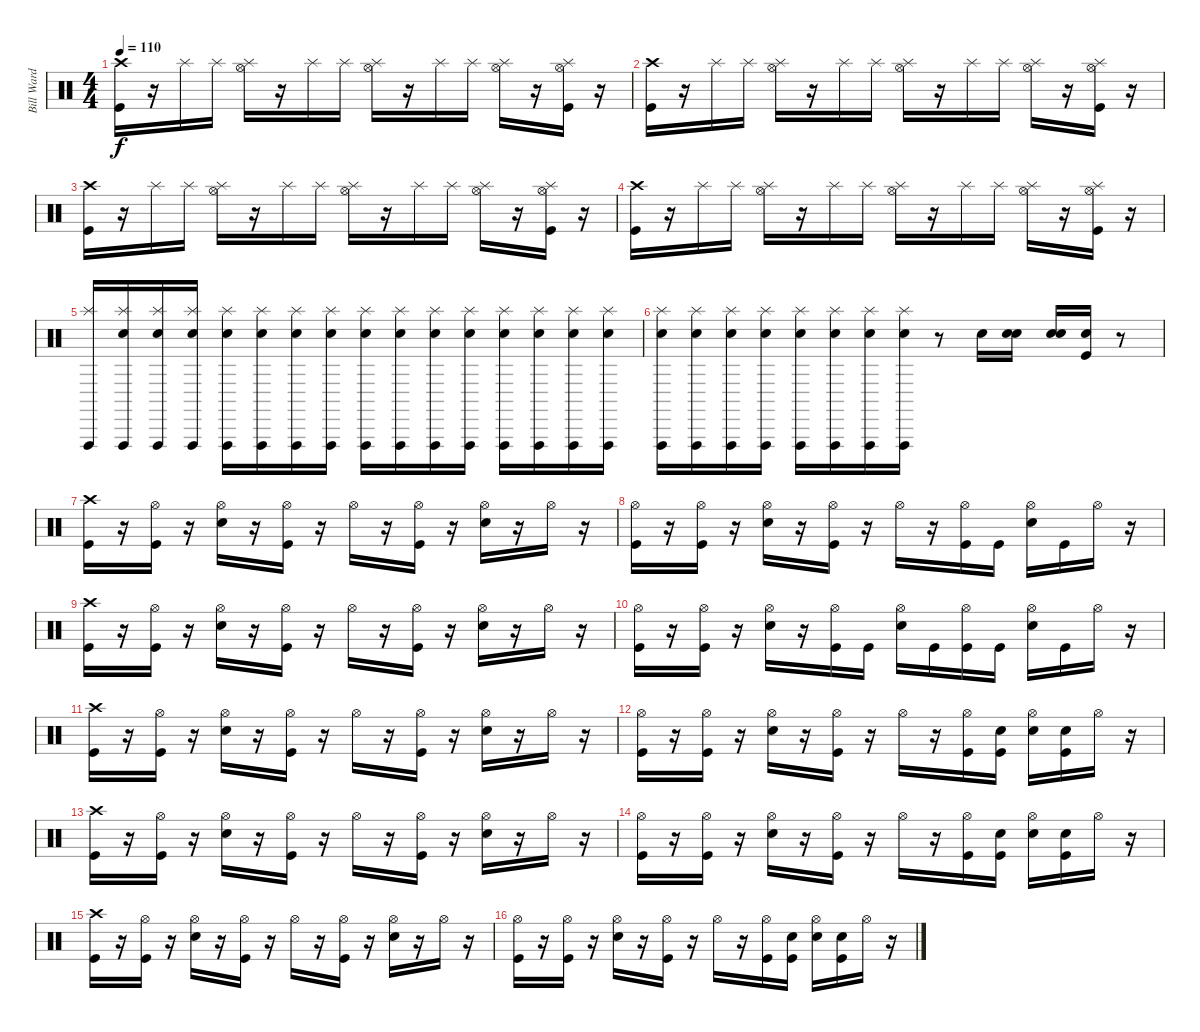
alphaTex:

\track ("Bill Ward" "Bill Ward") {instrument percussion}
\staff {score}
\articulation defaults
\ts (4 4)
\tempo 110
\clef neutral
\ks c
("Crash high (hit)" "Kick (hit)").16{dy f} r.16 "Splash (hit)".16 "Splash (hit)".16 ("Hi-Hat (open)" "Splash (hit)").16 r.16 "Splash (hit)".16 "Splash (hit)".16 ("Hi-Hat (open)" "Splash (hit)").16 r.16 "Splash (hit)".16 "Splash (hit)".16 ("Hi-Hat (open)" "Splash (hit)").16 r.16 ("Kick (hit)" "Hi-Hat (open)" "Splash (hit)").16 r.16 |
("Crash high (hit)" "Kick (hit)").16 r.16 "Splash (hit)".16 "Splash (hit)".16 ("Hi-Hat (open)" "Splash (hit)").16 r.16 "Splash (hit)".16 "Splash (hit)".16 ("Hi-Hat (open)" "Splash (hit)").16 r.16 "Splash (hit)".16 "Splash (hit)".16 ("Hi-Hat (open)" "Splash (hit)").16 r.16 ("Kick (hit)" "Hi-Hat (open)" "Splash (hit)").16 r.16 |
("Crash high (hit)" "Kick (hit)").16 r.16 "Splash (hit)".16 "Splash (hit)".16 ("Hi-Hat (open)" "Splash (hit)").16 r.16 "Splash (hit)".16 "Splash (hit)".16 ("Hi-Hat (open)" "Splash (hit)").16 r.16 "Splash (hit)".16 "Splash (hit)".16 ("Hi-Hat (open)" "Splash (hit)").16 r.16 ("Kick (hit)" "Hi-Hat (open)" "Splash (hit)").16 r.16 |
("Crash high (hit)" "Kick (hit)").16 r.16 "Splash (hit)".16 "Splash (hit)".16 ("Hi-Hat (open)" "Splash (hit)").16 r.16 "Splash (hit)".16 "Splash (hit)".16 ("Hi-Hat (open)" "Splash (hit)").16 r.16 "Splash (hit)".16 "Splash (hit)".16 ("Hi-Hat (open)" "Splash (hit)").16 r.16 ("Kick (hit)" "Hi-Hat (open)" "Splash (hit)").16 r.16 |
("Vibraslap (hit)" "Splash (hit)").16 ("Snare (hit)" "Vibraslap (hit)" "Splash (hit)").16 ("Snare (hit)" "Vibraslap (hit)" "Splash (hit)").16 ("Snare (hit)" "Vibraslap (hit)" "Splash (hit)").16 ("Snare (hit)" "Vibraslap (hit)" "Splash (hit)").16 ("Snare (hit)" "Vibraslap (hit)" "Splash (hit)").16 ("Snare (hit)" "Vibraslap (hit)" "Splash (hit)").16 ("Snare (hit)" "Vibraslap (hit)" "Splash (hit)").16 ("Snare (hit)" "Vibraslap (hit)" "Splash (hit)").16 ("Snare (hit)" "Vibraslap (hit)" "Splash (hit)").16 ("Snare (hit)" "Vibraslap (hit)" "Splash (hit)").16 ("Snare (hit)" "Vibraslap (hit)" "Splash (hit)").16 ("Snare (hit)" "Vibraslap (hit)" "Splash (hit)").16 ("Snare (hit)" "Vibraslap (hit)" "Splash (hit)").16 ("Snare (hit)" "Vibraslap (hit)" "Splash (hit)").16 ("Snare (hit)" "Vibraslap (hit)" "Splash (hit)").16 |
("Snare (hit)" "Vibraslap (hit)" "Splash (hit)").16 ("Snare (hit)" "Vibraslap (hit)" "Splash (hit)").16 ("Snare (hit)" "Vibraslap (hit)" "Splash (hit)").16 ("Snare (hit)" "Vibraslap (hit)" "Splash (hit)").16 ("Snare (hit)" "Vibraslap (hit)" "Splash (hit)").16 ("Snare (hit)" "Vibraslap (hit)" "Splash (hit)").16 ("Snare (hit)" "Vibraslap (hit)" "Splash (hit)").16 ("Snare (hit)" "Vibraslap (hit)" "Splash (hit)").16 r.8 "Snare (hit) 2".16 ("Snare (hit)" "Snare (hit) 2").16 ("Snare (hit)" "Snare (hit) 2").16 ("Snare (hit)" "Kick (hit)").16 r.8 |
("Crash high (hit)" "Kick (hit)").16 r.16 ("Kick (hit)" "Hi-Hat (open)").16 r.16 ("Snare (hit) 2" "Hi-Hat (open)").16 r.16 ("Kick (hit)" "Hi-Hat (open)").16 r.16 "Hi-Hat (open)".16 r.16 ("Kick (hit)" "Hi-Hat (open)").16 r.16 ("Hi-Hat (open)" "Snare (hit) 2").16 r.16 "Hi-Hat (open)".16 r.16 |
("Kick (hit)" "Hi-Hat (open)").16 r.16 ("Kick (hit)" "Hi-Hat (open)").16 r.16 ("Snare (hit) 2" "Hi-Hat (open)").16 r.16 ("Kick (hit)" "Hi-Hat (open)").16 r.16 "Hi-Hat (open)".16 r.16 ("Kick (hit)" "Hi-Hat (open)").16 "Kick (hit)".16 ("Hi-Hat (open)" "Snare (hit) 2").16 "Kick (hit)".16 "Hi-Hat (open)".16 r.16 |
("Kick (hit)" "Crash high (hit)").16 r.16 ("Kick (hit)" "Hi-Hat (open)").16 r.16 ("Snare (hit) 2" "Hi-Hat (open)").16 r.16 ("Kick (hit)" "Hi-Hat (open)").16 r.16 "Hi-Hat (open)".16 r.16 ("Kick (hit)" "Hi-Hat (open)").16 r.16 ("Hi-Hat (open)" "Snare (hit) 2").16 r.16 "Hi-Hat (open)".16 r.16 |
("Kick (hit)" "Hi-Hat (open)").16 r.16 ("Kick (hit)" "Hi-Hat (open)").16 r.16 ("Snare (hit) 2" "Hi-Hat (open)").16 r.16 ("Kick (hit)" "Hi-Hat (open)").16 "Kick (hit)".16 ("Hi-Hat (open)" "Snare (hit) 2").16 "Kick (hit)".16 ("Kick (hit)" "Hi-Hat (open)").16 "Kick (hit)".16 ("Hi-Hat (open)" "Snare (hit) 2").16 "Kick (hit)".16 "Hi-Hat (open)".16 r.16 |
("Crash high (hit)" "Kick (hit)").16 r.16 ("Kick (hit)" "Hi-Hat (open)").16 r.16 ("Snare (hit) 2" "Hi-Hat (open)").16 r.16 ("Kick (hit)" "Hi-Hat (open)").16 r.16 "Hi-Hat (open)".16 r.16 ("Kick (hit)" "Hi-Hat (open)").16 r.16 ("Snare (hit) 2" "Hi-Hat (open)").16 r.16 "Hi-Hat (open)".16 r.16 |
("Kick (hit)" "Hi-Hat (open)").16 r.16 ("Kick (hit)" "Hi-Hat (open)").16 r.16 ("Snare (hit) 2" "Hi-Hat (open)").16 r.16 ("Kick (hit)" "Hi-Hat (open)").16 r.16 "Hi-Hat (open)".16 r.16 ("Kick (hit)" "Hi-Hat (open)").16 ("Snare (hit)" "Kick (hit)").16 ("Snare (hit) 2" "Hi-Hat (open)").16 ("Snare (hit)" "Kick (hit)").16 "Hi-Hat (open)".16 r.16 |
("Kick (hit)" "Crash high (hit)").16 r.16 ("Kick (hit)" "Hi-Hat (open)").16 r.16 ("Snare (hit) 2" "Hi-Hat (open)").16 r.16 ("Kick (hit)" "Hi-Hat (open)").16 r.16 "Hi-Hat (open)".16 r.16 ("Kick (hit)" "Hi-Hat (open)").16 r.16 ("Snare (hit) 2" "Hi-Hat (open)").16 r.16 "Hi-Hat (open)".16 r.16 |
("Kick (hit)" "Hi-Hat (open)").16 r.16 ("Kick (hit)" "Hi-Hat (open)").16 r.16 ("Snare (hit) 2" "Hi-Hat (open)").16 r.16 ("Kick (hit)" "Hi-Hat (open)").16 r.16 "Hi-Hat (open)".16 r.16 ("Kick (hit)" "Hi-Hat (open)").16 ("Snare (hit)" "Kick (hit)").16 ("Snare (hit) 2" "Hi-Hat (open)").16 ("Snare (hit)" "Kick (hit)").16 "Hi-Hat (open)".16 r.16 |
("Crash high (hit)" "Kick (hit)").16 r.16 ("Kick (hit)" "Hi-Hat (open)").16 r.16 ("Snare (hit) 2" "Hi-Hat (open)").16 r.16 ("Kick (hit)" "Hi-Hat (open)").16 r.16 "Hi-Hat (open)".16 r.16 ("Kick (hit)" "Hi-Hat (open)").16 r.16 ("Snare (hit) 2" "Hi-Hat (open)").16 r.16 "Hi-Hat (open)".16 r.16 |
("Kick (hit)" "Hi-Hat (open)").16 r.16 ("Kick (hit)" "Hi-Hat (open)").16 r.16 ("Snare (hit) 2" "Hi-Hat (open)").16 r.16 ("Kick (hit)" "Hi-Hat (open)").16 r.16 "Hi-Hat (open)".16 r.16 ("Kick (hit)" "Hi-Hat (open)").16 ("Snare (hit)" "Kick (hit)").16 ("Snare (hit) 2" "Hi-Hat (open)").16 ("Snare (hit)" "Kick (hit)").16 "Hi-Hat (open)".16 r.16
